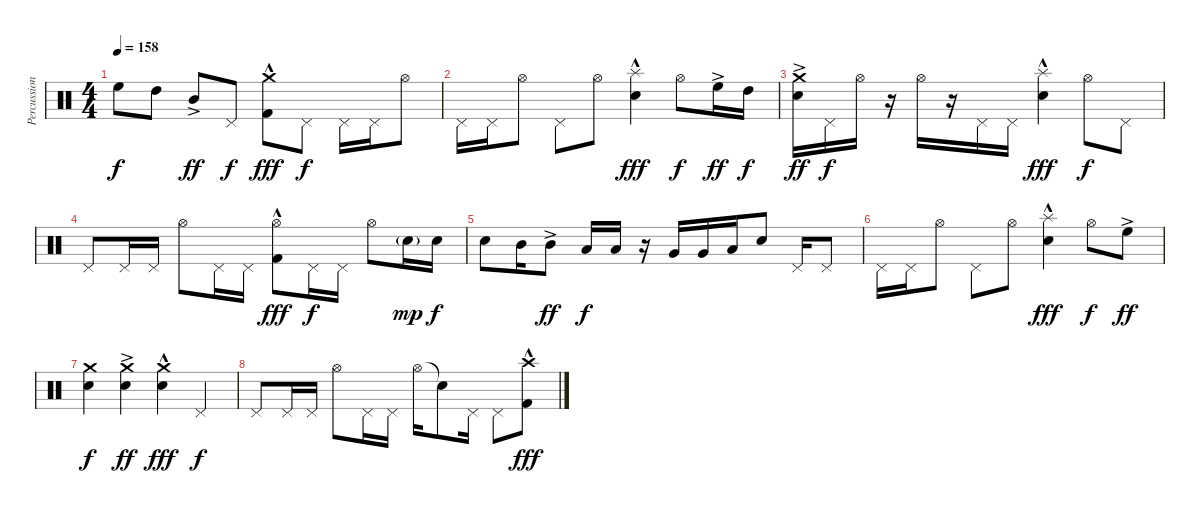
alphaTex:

\track ("Percussion" "Percussion") {instrument percussion}
\staff {score}
\articulation defaults
\ts (4 4)
\tempo 158
\clef neutral
\ks c "High Floor Tom (hit)".8{dy f} "High Tom (hit)".8 "Mid Tom (hit)"{ac}.8{dy ff} "Pedal Hi-Hat (hit)".8{dy f}
("Crash medium (hit)" "Kick (hit) 2"{hac}).8{dy fff} "Pedal Hi-Hat (hit)".8{dy f} "Pedal Hi-Hat (hit)".16 "Pedal Hi-Hat (hit)".16 "Hi-Hat (open)".8 |
"Pedal Hi-Hat (hit)".16 "Pedal Hi-Hat (hit)".16 "Hi-Hat (open)".8 "Pedal Hi-Hat (hit)".8 "Hi-Hat (open)".8 ("Splash (hit)" "Electric Snare (hit)"{hac}).4{dy fff} "Hi-Hat (open)".8{dy f} "High Floor Tom (hit)"{ac}.16{dy ff} "High Tom (hit)".16{dy f} |
("Crash medium (hit)" "Electric Snare (hit)"{ac}).16{dy ff} "Pedal Hi-Hat (hit)".16{dy f} "Hi-Hat (open)".16 r.16 "Hi-Hat (open)".16 r.16 "Pedal Hi-Hat (hit)".16 "Pedal Hi-Hat (hit)".16 ("Splash (hit)" "Electric Snare (hit)"{hac}).4{dy fff} "Hi-Hat (open)".8{dy f} "Pedal Hi-Hat (hit)".8 |
"Pedal Hi-Hat (hit)".8 "Pedal Hi-Hat (hit)".16 "Pedal Hi-Hat (hit)".16 "Hi-Hat (open)".8 "Pedal Hi-Hat (hit)".16 "Pedal Hi-Hat (hit)".16 ("Hi-Hat (open)" "Kick (hit) 2"{hac}).8{dy fff} "Pedal Hi-Hat (hit)".16{dy f} "Pedal Hi-Hat (hit)".16 "Hi-Hat (open)".8 "Electric Snare (hit)"{g}.16{dy mp} "Electric Snare (hit)".16{dy f} |
"Electric Snare (hit)".8 "Mid Tom (hit)".16 "Mid Tom (hit)"{ac}.8{dy ff} "Low Tom (hit)".16{dy f} "Low Tom (hit)".16 r.16 "Very Low Tom (hit)".16 "Very Low Tom (hit)".16 "Low Floor Tom (hit)".16 "Electric Snare (hit)".8 "Pedal Hi-Hat (hit)".16 "Pedal Hi-Hat (hit)".8 |
"Pedal Hi-Hat (hit)".16 "Pedal Hi-Hat (hit)".16 "Hi-Hat (open)".8 "Pedal Hi-Hat (hit)".8 "Hi-Hat (open)".8 ("Splash (hit)" "Electric Snare (hit)"{hac}).4{dy fff} "Hi-Hat (open)".8{dy f} "High Floor Tom (hit)"{ac}.8{dy ff} |
("Crash medium (hit)" "Electric Snare (hit)").4{dy f} ("Crash medium (hit)" "Electric Snare (hit)"{ac}).4{dy ff} ("Crash medium (hit)" "Electric Snare (hit)"{hac}).4{dy fff} "Pedal Hi-Hat (hit)".4{dy f} |
"Pedal Hi-Hat (hit)".8 "Pedal Hi-Hat (hit)".16 "Pedal Hi-Hat (hit)".16 "Hi-Hat (open)".8 "Pedal Hi-Hat (hit)".16 "Pedal Hi-Hat (hit)".16 "Hi-Hat (open)".16 "Snare (hit)"{t}.8 "Pedal Hi-Hat (hit)".16 "Pedal Hi-Hat (hit)".8 ("Crash high (hit)" "Kick (hit) 2"{hac}).8{dy fff}
